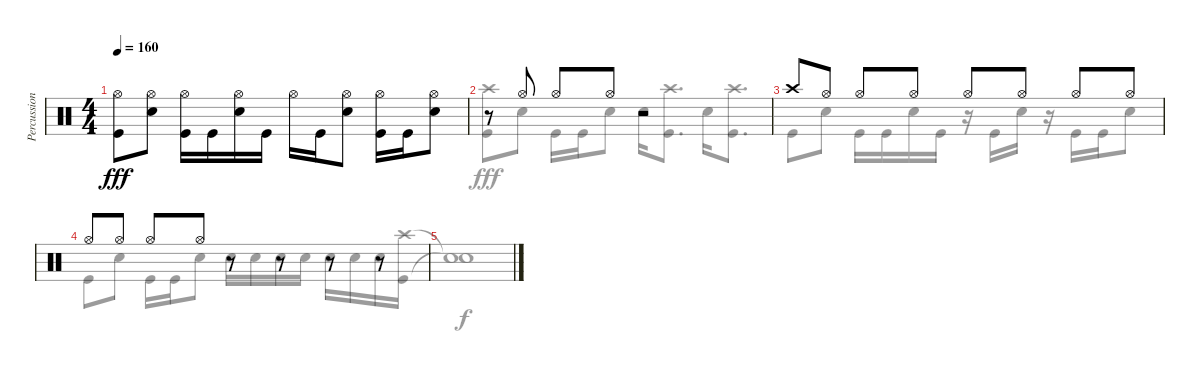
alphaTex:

\track ("Percussion" "Percussion") {instrument percussion}
\staff {score}
\articulation defaults
\voice
\ts (4 4)
\tempo 160
\clef neutral
\ks c
("Hi-Hat (open)" "Kick (hit)").8{dy fff} ("Hi-Hat (open)" "Snare (hit) 2").8 ("Hi-Hat (open)" "Kick (hit)").16 "Kick (hit)".16 ("Hi-Hat (open)" "Snare (hit) 2").16 "Kick (hit)".16 "Hi-Hat (open)".16 "Kick (hit)".16 ("Hi-Hat (open)" "Snare (hit) 2").8 ("Hi-Hat (open)" "Kick (hit)").16 "Kick (hit)".16 ("Hi-Hat (open)" "Snare (hit) 2").8 |
r.8 "Hi-Hat (open)".8 "Hi-Hat (open)".8 "Hi-Hat (open)".8 r.2 |
"Crash high (hit)".8 "Hi-Hat (open)".8 "Hi-Hat (open)".8 "Hi-Hat (open)".8 "Hi-Hat (open)".8 "Hi-Hat (open)".8 "Hi-Hat (open)".8 "Hi-Hat (open)".8 |
"Hi-Hat (open)".8 "Hi-Hat (open)".8 "Hi-Hat (open)".8 "Hi-Hat (open)".8 r.8 r.8 r.8 r.8 |
\voice
\clef neutral
\ottava regular
\simile none
\ks c
|
("Crash high (hit)" "Kick (hit)").8 "Snare (hit) 2".8 "Kick (hit)".16 "Kick (hit)".16 "Snare (hit) 2".8 "Snare (hit) 2".16 ("Crash high (hit)" "Kick (hit)").8{d} "Snare (hit) 2".16 ("Crash high (hit)" "Kick (hit)").8{d} |
"Kick (hit)".8 "Snare (hit) 2".8 "Kick (hit)".16 "Kick (hit)".16 "Snare (hit) 2".16 "Kick (hit)".16 r.16 "Kick (hit)".16 "Snare (hit) 2".16 r.16 "Kick (hit)".16 "Kick (hit)".16 "Snare (hit) 2".8 |
"Kick (hit)".8 "Snare (hit) 2".8 "Kick (hit)".16 "Kick (hit)".16 "Snare (hit) 2".8 "Snare (hit) 2".16 "Snare (hit) 2".16 "Snare (hit) 2".16 "Snare (hit) 2".16 "Snare (hit) 2".16 "Snare (hit) 2".16 "Snare (hit) 2".16 ("Crash high (hit)" "Kick (hit)").16 |
("Snare (hit)"{t} "Snare (hit)"{t}).1{dy f}
